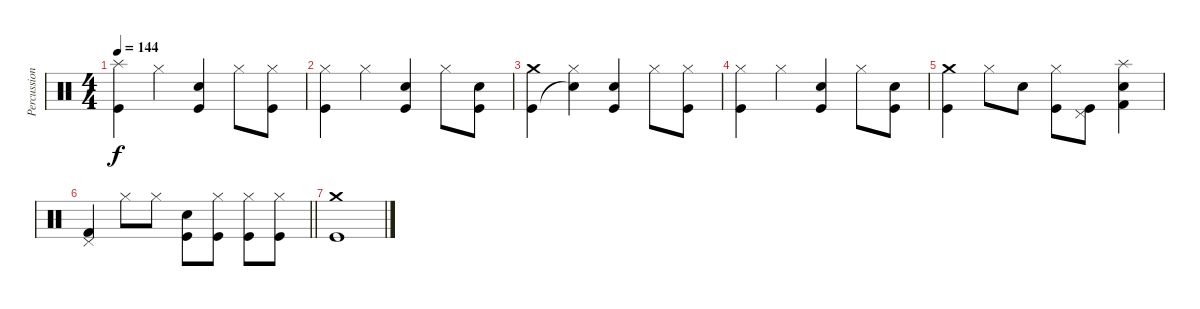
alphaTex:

\track ("Percussion" "Percussion") {instrument percussion}
\staff {score}
\articulation defaults
\ts (4 4)
\tempo 144
\clef neutral
\ks c
("Splash (hit)" "Kick (hit)").4{dy f} "Hi-Hat (closed)".4 ("Electric Snare (hit)" "Kick (hit)").4 "Hi-Hat (closed)".8 ("Hi-Hat (closed)" "Kick (hit)").8 |
("Hi-Hat (closed)" "Kick (hit)").4 "Hi-Hat (closed)".4 ("Electric Snare (hit)" "Kick (hit)").4 "Hi-Hat (closed)".8 ("Electric Snare (hit)" "Kick (hit)").8 |
("Crash medium (hit)" "Kick (hit)").4 ("Hi-Hat (closed)" "Snare (hit)"{t}).4 ("Electric Snare (hit)" "Kick (hit)").4 "Hi-Hat (closed)".8 ("Hi-Hat (closed)" "Kick (hit)").8 |
("Hi-Hat (closed)" "Kick (hit)").4 "Hi-Hat (closed)".4 ("Electric Snare (hit)" "Kick (hit)").4 "Hi-Hat (closed)".8 ("Electric Snare (hit)" "Kick (hit)").8 |
("Crash medium (hit)" "Kick (hit)").4 "Hi-Hat (closed)".8 "Electric Snare (hit)".8 ("Hi-Hat (closed)" "Kick (hit)").8 ("Pedal Hi-Hat (hit)" "Kick (hit)").8 ("Splash (hit)" "Electric Snare (hit)" "Kick (hit) 2").4 |
\barLineRight lightlight
("Pedal Hi-Hat (hit)" "Kick (hit) 2").4 "Hi-Hat (closed)".8 "Hi-Hat (closed)".8 ("Electric Snare (hit)" "Kick (hit)").8 ("Hi-Hat (closed)" "Kick (hit)").8 ("Hi-Hat (closed)" "Kick (hit)").8 ("Hi-Hat (closed)" "Kick (hit)").8 |
("Crash medium (hit)" "Kick (hit)").1
